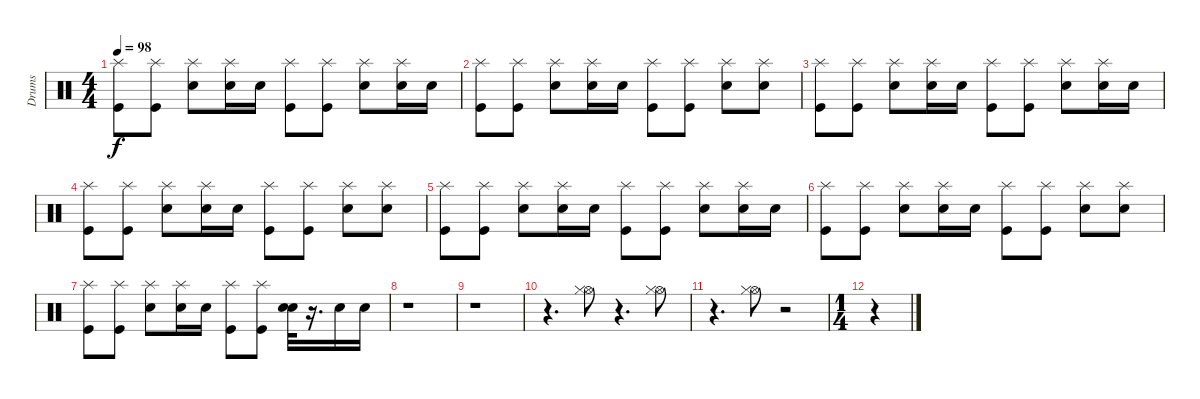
\track ("Drums" "Drums") {instrument percussion}
\staff {score}
\articulation defaults
\ts (4 4)
\tempo 98
\clef neutral
\ks c
("Splash (hit)" "Kick (hit)").8{dy f} ("Splash (hit)" "Kick (hit)").8 ("Splash (hit)" "Snare (hit) 2").8 ("Splash (hit)" "Snare (hit) 2").16 "Snare (hit) 2".16 ("Splash (hit)" "Kick (hit)").8 ("Splash (hit)" "Kick (hit)").8 ("Splash (hit)" "Snare (hit) 2").8 ("Splash (hit)" "Snare (hit) 2").16 "Snare (hit) 2".16 |
("Splash (hit)" "Kick (hit)").8 ("Splash (hit)" "Kick (hit)").8 ("Splash (hit)" "Snare (hit) 2").8 ("Splash (hit)" "Snare (hit) 2").16 "Snare (hit) 2".16 ("Splash (hit)" "Kick (hit)").8 ("Splash (hit)" "Kick (hit)").8 ("Splash (hit)" "Snare (hit) 2").8 ("Splash (hit)" "Snare (hit) 2").8 |
("Splash (hit)" "Kick (hit)").8 ("Splash (hit)" "Kick (hit)").8 ("Splash (hit)" "Snare (hit) 2").8 ("Splash (hit)" "Snare (hit) 2").16 "Snare (hit) 2".16 ("Splash (hit)" "Kick (hit)").8 ("Splash (hit)" "Kick (hit)").8 ("Splash (hit)" "Snare (hit) 2").8 ("Splash (hit)" "Snare (hit) 2").16 "Snare (hit) 2".16 |
("Splash (hit)" "Kick (hit)").8 ("Splash (hit)" "Kick (hit)").8 ("Splash (hit)" "Snare (hit) 2").8 ("Splash (hit)" "Snare (hit) 2").16 "Snare (hit) 2".16 ("Splash (hit)" "Kick (hit)").8 ("Splash (hit)" "Kick (hit)").8 ("Splash (hit)" "Snare (hit) 2").8 ("Splash (hit)" "Snare (hit) 2").8 |
("Splash (hit)" "Kick (hit)").8 ("Splash (hit)" "Kick (hit)").8 ("Splash (hit)" "Snare (hit) 2").8 ("Splash (hit)" "Snare (hit) 2").16 "Snare (hit) 2".16 ("Splash (hit)" "Kick (hit)").8 ("Splash (hit)" "Kick (hit)").8 ("Splash (hit)" "Snare (hit) 2").8 ("Splash (hit)" "Snare (hit) 2").16 "Snare (hit) 2".16 |
("Splash (hit)" "Kick (hit)").8 ("Splash (hit)" "Kick (hit)").8 ("Splash (hit)" "Snare (hit) 2").8 ("Splash (hit)" "Snare (hit) 2").16 "Snare (hit) 2".16 ("Splash (hit)" "Kick (hit)").8 ("Splash (hit)" "Kick (hit)").8 ("Splash (hit)" "Snare (hit) 2").8 ("Splash (hit)" "Snare (hit) 2").8 |
("Splash (hit)" "Kick (hit)").8 ("Splash (hit)" "Kick (hit)").8 ("Splash (hit)" "Snare (hit) 2").8 ("Splash (hit)" "Snare (hit) 2").16 "Snare (hit) 2".16 ("Splash (hit)" "Kick (hit)").8 ("Splash (hit)" "Kick (hit)").8 ("Snare (hit) 2" "Snare (hit) 2").32 r.16{d} "Snare (hit) 2".16 "Snare (hit) 2".16 |
r.1 |
r.1 |
r.4{d} ("Hi-Hat (open)" "Hi-Hat (closed)").8 r.4{d} ("Hi-Hat (open)" "Hi-Hat (closed)").8 |
r.4{d} ("Hi-Hat (open)" "Hi-Hat (closed)").8 r.2 |
\ts (1 4)
r.4
